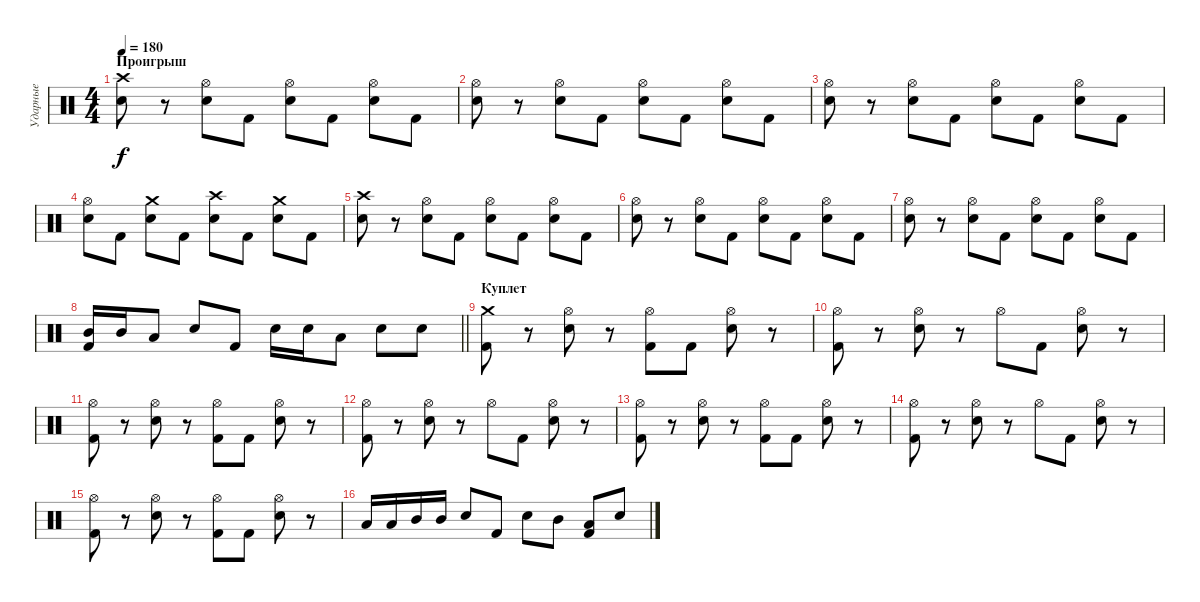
\track ("Ударные" "Ударные") {instrument percussion}
\staff {score}
\articulation defaults
\ts (4 4)
\section ("" "Проигрыш")
\tempo 180
\clef neutral
\ks c
("Crash high (hit)" "Snare (hit) 2").8{dy f} r.8 ("Hi-Hat (open)" "Snare (hit) 2").8 "Kick (hit) 2".8 ("Hi-Hat (open)" "Snare (hit) 2").8 "Kick (hit) 2".8 ("Hi-Hat (open)" "Snare (hit) 2").8 "Kick (hit) 2".8 |
("Hi-Hat (open)" "Snare (hit) 2").8 r.8 ("Hi-Hat (open)" "Snare (hit) 2").8 "Kick (hit) 2".8 ("Hi-Hat (open)" "Snare (hit) 2").8 "Kick (hit) 2".8 ("Hi-Hat (open)" "Snare (hit) 2").8 "Kick (hit) 2".8 |
("Hi-Hat (open)" "Snare (hit) 2").8 r.8 ("Hi-Hat (open)" "Snare (hit) 2").8 "Kick (hit) 2".8 ("Hi-Hat (open)" "Snare (hit) 2").8 "Kick (hit) 2".8 ("Hi-Hat (open)" "Snare (hit) 2").8 "Kick (hit) 2".8 |
("Hi-Hat (open)" "Snare (hit) 2").8 "Kick (hit) 2".8 ("Crash medium (hit)" "Snare (hit) 2").8 "Kick (hit) 2".8 ("Crash high (hit)" "Snare (hit) 2").8 "Kick (hit) 2".8 ("Crash medium (hit)" "Snare (hit) 2").8 "Kick (hit) 2".8 |
("Crash high (hit)" "Snare (hit) 2").8 r.8 ("Hi-Hat (open)" "Snare (hit) 2").8 "Kick (hit) 2".8 ("Hi-Hat (open)" "Snare (hit) 2").8 "Kick (hit) 2".8 ("Hi-Hat (open)" "Snare (hit) 2").8 "Kick (hit) 2".8 |
("Hi-Hat (open)" "Snare (hit) 2").8 r.8 ("Hi-Hat (open)" "Snare (hit) 2").8 "Kick (hit) 2".8 ("Hi-Hat (open)" "Snare (hit) 2").8 "Kick (hit) 2".8 ("Hi-Hat (open)" "Snare (hit) 2").8 "Kick (hit) 2".8 |
("Hi-Hat (open)" "Snare (hit) 2").8 r.8 ("Hi-Hat (open)" "Snare (hit) 2").8 "Kick (hit) 2".8 ("Hi-Hat (open)" "Snare (hit) 2").8 "Kick (hit) 2".8 ("Hi-Hat (open)" "Snare (hit) 2").8 "Kick (hit) 2".8 |
\barLineRight lightlight
("Mid Tom (hit)" "Kick (hit) 2").16 "Mid Tom (hit)".16 "Low Tom (hit)".8 "Snare (hit) 2".8 "Kick (hit) 2".8 "Snare (hit) 2".16 "Snare (hit) 2".16 "Low Tom (hit)".8 "Snare (hit) 2".8 "Snare (hit) 2".8 |
\section ("" "Куплет")
("Crash medium (hit)" "Kick (hit) 2").8 r.8 ("Hi-Hat (open)" "Snare (hit) 2").8 r.8 ("Hi-Hat (open)" "Kick (hit) 2").8 "Kick (hit) 2".8 ("Hi-Hat (open)" "Snare (hit) 2").8 r.8 |
("Hi-Hat (open)" "Kick (hit) 2").8 r.8 ("Hi-Hat (open)" "Snare (hit) 2").8 r.8 "Hi-Hat (open)".8 "Kick (hit) 2".8 ("Hi-Hat (open)" "Snare (hit) 2").8 r.8 |
("Hi-Hat (open)" "Kick (hit) 2").8 r.8 ("Hi-Hat (open)" "Snare (hit) 2").8 r.8 ("Hi-Hat (open)" "Kick (hit) 2").8 "Kick (hit) 2".8 ("Hi-Hat (open)" "Snare (hit) 2").8 r.8 |
("Hi-Hat (open)" "Kick (hit) 2").8 r.8 ("Hi-Hat (open)" "Snare (hit) 2").8 r.8 "Hi-Hat (open)".8 "Kick (hit) 2".8 ("Hi-Hat (open)" "Snare (hit) 2").8 r.8 |
("Hi-Hat (open)" "Kick (hit) 2").8 r.8 ("Hi-Hat (open)" "Snare (hit) 2").8 r.8 ("Hi-Hat (open)" "Kick (hit) 2").8 "Kick (hit) 2".8 ("Hi-Hat (open)" "Snare (hit) 2").8 r.8 |
("Hi-Hat (open)" "Kick (hit) 2").8 r.8 ("Hi-Hat (open)" "Snare (hit) 2").8 r.8 "Hi-Hat (open)".8 "Kick (hit) 2".8 ("Hi-Hat (open)" "Snare (hit) 2").8 r.8 |
("Hi-Hat (open)" "Kick (hit) 2").8 r.8 ("Hi-Hat (open)" "Snare (hit) 2").8 r.8 ("Hi-Hat (open)" "Kick (hit) 2").8 "Kick (hit) 2".8 ("Hi-Hat (open)" "Snare (hit) 2").8 r.8 |
"Low Tom (hit)".16 "Low Tom (hit)".16 "Mid Tom (hit)".16 "Mid Tom (hit)".16 "Snare (hit) 2".8 "Kick (hit) 2".8 "Snare (hit) 2".8 "Mid Tom (hit)".8 ("Low Tom (hit)" "Kick (hit) 2").8 "Snare (hit) 2".8
